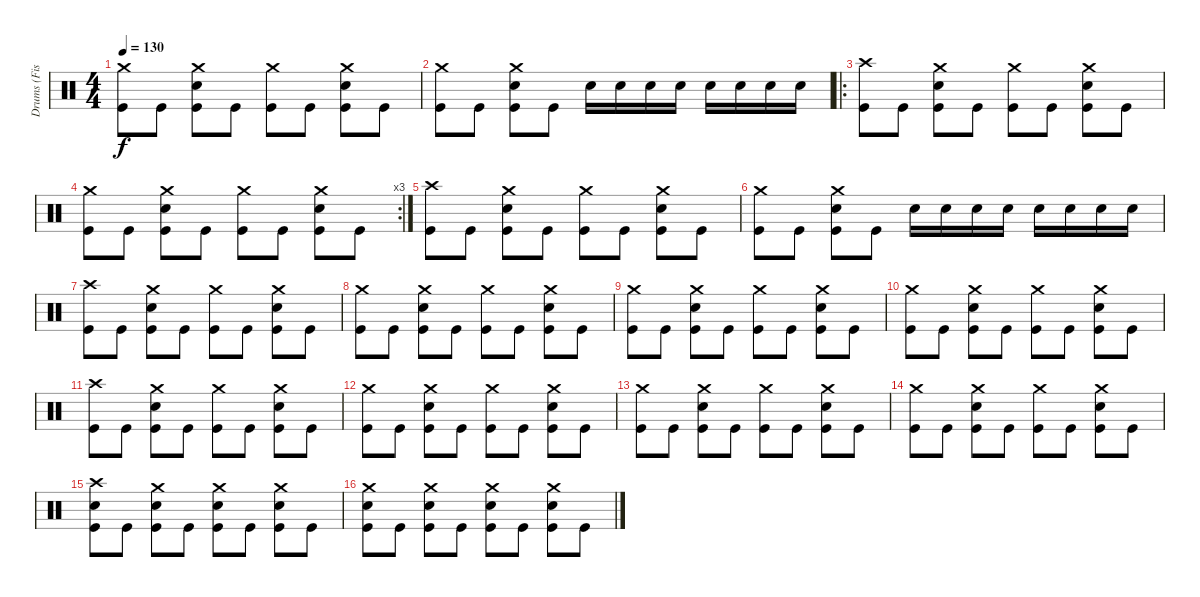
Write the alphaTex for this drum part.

\track ("Drums (Fish)" "Drums (Fis") {instrument percussion}
\staff {score}
\articulation defaults
\ts (4 4)
\tempo 130
\clef neutral
\ks c
("Crash medium (hit)" "Kick (hit)").8{dy f} "Kick (hit)".8 ("Crash medium (hit)" "Electric Snare (hit)" "Kick (hit)").8 "Kick (hit)".8 ("Crash medium (hit)" "Kick (hit)").8 "Kick (hit)".8 ("Crash medium (hit)" "Electric Snare (hit)" "Kick (hit)").8 "Kick (hit)".8 |
("Crash medium (hit)" "Kick (hit)").8 "Kick (hit)".8 ("Crash medium (hit)" "Electric Snare (hit)" "Kick (hit)").8 "Kick (hit)".8 "Snare (hit) 2".16 "Snare (hit) 2".16 "Snare (hit) 2".16 "Snare (hit) 2".16 "Snare (hit) 2".16 "Snare (hit) 2".16 "Snare (hit) 2".16 "Snare (hit) 2".16 |
\ro
("Crash high (hit)" "Kick (hit)").8 "Kick (hit)".8 ("Crash medium (hit)" "Electric Snare (hit)" "Kick (hit)").8 "Kick (hit)".8 ("Crash medium (hit)" "Kick (hit)").8 "Kick (hit)".8 ("Crash medium (hit)" "Electric Snare (hit)" "Kick (hit)").8 "Kick (hit)".8 |
\rc 3
("Crash medium (hit)" "Kick (hit)").8 "Kick (hit)".8 ("Crash medium (hit)" "Electric Snare (hit)" "Kick (hit)").8 "Kick (hit)".8 ("Crash medium (hit)" "Kick (hit)").8 "Kick (hit)".8 ("Crash medium (hit)" "Electric Snare (hit)" "Kick (hit)").8 "Kick (hit)".8 |
("Crash high (hit)" "Kick (hit)").8 "Kick (hit)".8 ("Crash medium (hit)" "Electric Snare (hit)" "Kick (hit)").8 "Kick (hit)".8 ("Crash medium (hit)" "Kick (hit)").8 "Kick (hit)".8 ("Crash medium (hit)" "Electric Snare (hit)" "Kick (hit)").8 "Kick (hit)".8 |
("Crash medium (hit)" "Kick (hit)").8 "Kick (hit)".8 ("Crash medium (hit)" "Electric Snare (hit)" "Kick (hit)").8 "Kick (hit)".8 "Snare (hit) 2".16 "Snare (hit) 2".16 "Snare (hit) 2".16 "Snare (hit) 2".16 "Snare (hit) 2".16 "Snare (hit) 2".16 "Snare (hit) 2".16 "Snare (hit) 2".16 |
("Crash high (hit)" "Kick (hit)").8 "Kick (hit)".8 ("Crash medium (hit)" "Electric Snare (hit)" "Kick (hit)").8 "Kick (hit)".8 ("Crash medium (hit)" "Kick (hit)").8 "Kick (hit)".8 ("Crash medium (hit)" "Electric Snare (hit)" "Kick (hit)").8 "Kick (hit)".8 |
("Crash medium (hit)" "Kick (hit)").8 "Kick (hit)".8 ("Crash medium (hit)" "Electric Snare (hit)" "Kick (hit)").8 "Kick (hit)".8 ("Crash medium (hit)" "Kick (hit)").8 "Kick (hit)".8 ("Crash medium (hit)" "Electric Snare (hit)" "Kick (hit)").8 "Kick (hit)".8 |
("Crash medium (hit)" "Kick (hit)").8 "Kick (hit)".8 ("Crash medium (hit)" "Electric Snare (hit)" "Kick (hit)").8 "Kick (hit)".8 ("Crash medium (hit)" "Kick (hit)").8 "Kick (hit)".8 ("Crash medium (hit)" "Electric Snare (hit)" "Kick (hit)").8 "Kick (hit)".8 |
("Crash medium (hit)" "Kick (hit)").8 "Kick (hit)".8 ("Crash medium (hit)" "Electric Snare (hit)" "Kick (hit)").8 "Kick (hit)".8 ("Crash medium (hit)" "Kick (hit)").8 "Kick (hit)".8 ("Crash medium (hit)" "Electric Snare (hit)" "Kick (hit)").8 "Kick (hit)".8 |
("Crash high (hit)" "Kick (hit)").8 "Kick (hit)".8 ("Crash medium (hit)" "Electric Snare (hit)" "Kick (hit)").8 "Kick (hit)".8 ("Crash medium (hit)" "Kick (hit)").8 "Kick (hit)".8 ("Crash medium (hit)" "Electric Snare (hit)" "Kick (hit)").8 "Kick (hit)".8 |
("Crash medium (hit)" "Kick (hit)").8 "Kick (hit)".8 ("Crash medium (hit)" "Electric Snare (hit)" "Kick (hit)").8 "Kick (hit)".8 ("Crash medium (hit)" "Kick (hit)").8 "Kick (hit)".8 ("Crash medium (hit)" "Electric Snare (hit)" "Kick (hit)").8 "Kick (hit)".8 |
("Crash medium (hit)" "Kick (hit)").8 "Kick (hit)".8 ("Crash medium (hit)" "Electric Snare (hit)" "Kick (hit)").8 "Kick (hit)".8 ("Crash medium (hit)" "Kick (hit)").8 "Kick (hit)".8 ("Crash medium (hit)" "Electric Snare (hit)" "Kick (hit)").8 "Kick (hit)".8 |
("Crash medium (hit)" "Kick (hit)").8 "Kick (hit)".8 ("Crash medium (hit)" "Electric Snare (hit)" "Kick (hit)").8 "Kick (hit)".8 ("Crash medium (hit)" "Kick (hit)").8 "Kick (hit)".8 ("Crash medium (hit)" "Electric Snare (hit)" "Kick (hit)").8 "Kick (hit)".8 |
("Crash high (hit)" "Electric Snare (hit)" "Kick (hit)").8 "Kick (hit)".8 ("Crash medium (hit)" "Electric Snare (hit)" "Kick (hit)").8 "Kick (hit)".8 ("Crash medium (hit)" "Electric Snare (hit)" "Kick (hit)").8 "Kick (hit)".8 ("Crash medium (hit)" "Electric Snare (hit)" "Kick (hit)").8 "Kick (hit)".8 |
("Crash medium (hit)" "Electric Snare (hit)" "Kick (hit)").8 "Kick (hit)".8 ("Crash medium (hit)" "Electric Snare (hit)" "Kick (hit)").8 "Kick (hit)".8 ("Crash medium (hit)" "Electric Snare (hit)" "Kick (hit)").8 "Kick (hit)".8 ("Crash medium (hit)" "Electric Snare (hit)" "Kick (hit)").8 "Kick (hit)".8
